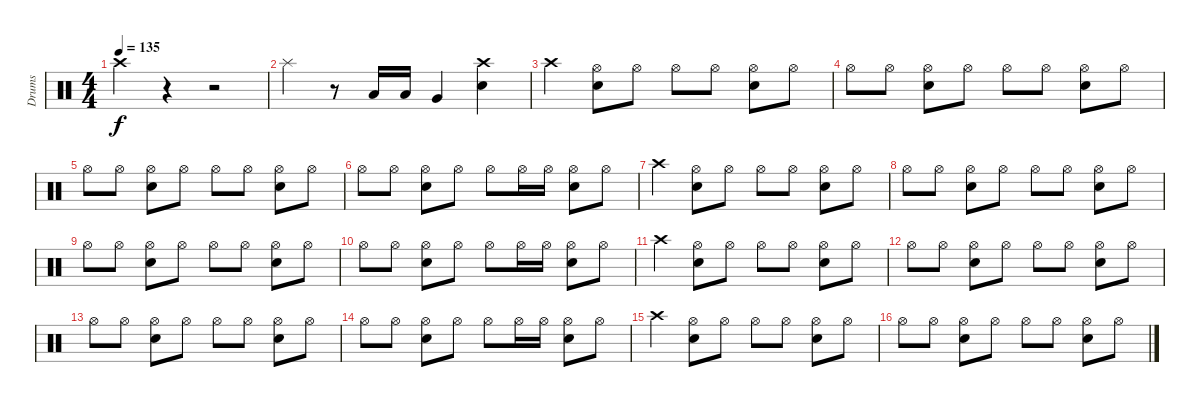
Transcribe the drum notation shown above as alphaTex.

\track ("Drums" "Drums") {instrument percussion}
\staff {score}
\articulation defaults
\ts (4 4)
\tempo 135
\clef neutral
\ks c "Crash high (hit)".4{dy f}
r.4 r.2 |
"Splash (hit)".4 r.8 "Low Tom (hit)".16 "Low Tom (hit)".16 "Very Low Tom (hit)".4 ("Crash high (hit)" "Snare (hit) 2").4 |
"Crash high (hit)".4 ("Hi-Hat (open)" "Snare (hit) 2").8 "Hi-Hat (open)".8 "Hi-Hat (open)".8 "Hi-Hat (open)".8 ("Hi-Hat (open)" "Snare (hit) 2").8 "Hi-Hat (open)".8 |
"Hi-Hat (open)".8 "Hi-Hat (open)".8 ("Hi-Hat (open)" "Snare (hit) 2").8 "Hi-Hat (open)".8 "Hi-Hat (open)".8 "Hi-Hat (open)".8 ("Hi-Hat (open)" "Snare (hit) 2").8 "Hi-Hat (open)".8 |
"Hi-Hat (open)".8 "Hi-Hat (open)".8 ("Hi-Hat (open)" "Snare (hit) 2").8 "Hi-Hat (open)".8 "Hi-Hat (open)".8 "Hi-Hat (open)".8 ("Hi-Hat (open)" "Snare (hit) 2").8 "Hi-Hat (open)".8 |
"Hi-Hat (open)".8 "Hi-Hat (open)".8 ("Hi-Hat (open)" "Snare (hit) 2").8 "Hi-Hat (open)".8 "Hi-Hat (open)".8 "Hi-Hat (open)".16 "Hi-Hat (open)".16 ("Hi-Hat (open)" "Snare (hit) 2").8 "Hi-Hat (open)".8 |
"Crash high (hit)".4 ("Hi-Hat (open)" "Snare (hit) 2").8 "Hi-Hat (open)".8 "Hi-Hat (open)".8 "Hi-Hat (open)".8 ("Hi-Hat (open)" "Snare (hit) 2").8 "Hi-Hat (open)".8 |
"Hi-Hat (open)".8 "Hi-Hat (open)".8 ("Hi-Hat (open)" "Snare (hit) 2").8 "Hi-Hat (open)".8 "Hi-Hat (open)".8 "Hi-Hat (open)".8 ("Hi-Hat (open)" "Snare (hit) 2").8 "Hi-Hat (open)".8 |
"Hi-Hat (open)".8 "Hi-Hat (open)".8 ("Hi-Hat (open)" "Snare (hit) 2").8 "Hi-Hat (open)".8 "Hi-Hat (open)".8 "Hi-Hat (open)".8 ("Hi-Hat (open)" "Snare (hit) 2").8 "Hi-Hat (open)".8 |
"Hi-Hat (open)".8 "Hi-Hat (open)".8 ("Hi-Hat (open)" "Snare (hit) 2").8 "Hi-Hat (open)".8 "Hi-Hat (open)".8 "Hi-Hat (open)".16 "Hi-Hat (open)".16 ("Hi-Hat (open)" "Snare (hit) 2").8 "Hi-Hat (open)".8 |
"Crash high (hit)".4 ("Hi-Hat (open)" "Snare (hit) 2").8 "Hi-Hat (open)".8 "Hi-Hat (open)".8 "Hi-Hat (open)".8 ("Hi-Hat (open)" "Snare (hit) 2").8 "Hi-Hat (open)".8 |
"Hi-Hat (open)".8 "Hi-Hat (open)".8 ("Hi-Hat (open)" "Snare (hit) 2").8 "Hi-Hat (open)".8 "Hi-Hat (open)".8 "Hi-Hat (open)".8 ("Hi-Hat (open)" "Snare (hit) 2").8 "Hi-Hat (open)".8 |
"Hi-Hat (open)".8 "Hi-Hat (open)".8 ("Hi-Hat (open)" "Snare (hit) 2").8 "Hi-Hat (open)".8 "Hi-Hat (open)".8 "Hi-Hat (open)".8 ("Hi-Hat (open)" "Snare (hit) 2").8 "Hi-Hat (open)".8 |
"Hi-Hat (open)".8 "Hi-Hat (open)".8 ("Hi-Hat (open)" "Snare (hit) 2").8 "Hi-Hat (open)".8 "Hi-Hat (open)".8 "Hi-Hat (open)".16 "Hi-Hat (open)".16 ("Hi-Hat (open)" "Snare (hit) 2").8 "Hi-Hat (open)".8 |
"Crash high (hit)".4 ("Hi-Hat (open)" "Snare (hit) 2").8 "Hi-Hat (open)".8 "Hi-Hat (open)".8 "Hi-Hat (open)".8 ("Hi-Hat (open)" "Snare (hit) 2").8 "Hi-Hat (open)".8 |
"Hi-Hat (open)".8 "Hi-Hat (open)".8 ("Hi-Hat (open)" "Snare (hit) 2").8 "Hi-Hat (open)".8 "Hi-Hat (open)".8 "Hi-Hat (open)".8 ("Hi-Hat (open)" "Snare (hit) 2").8 "Hi-Hat (open)".8
